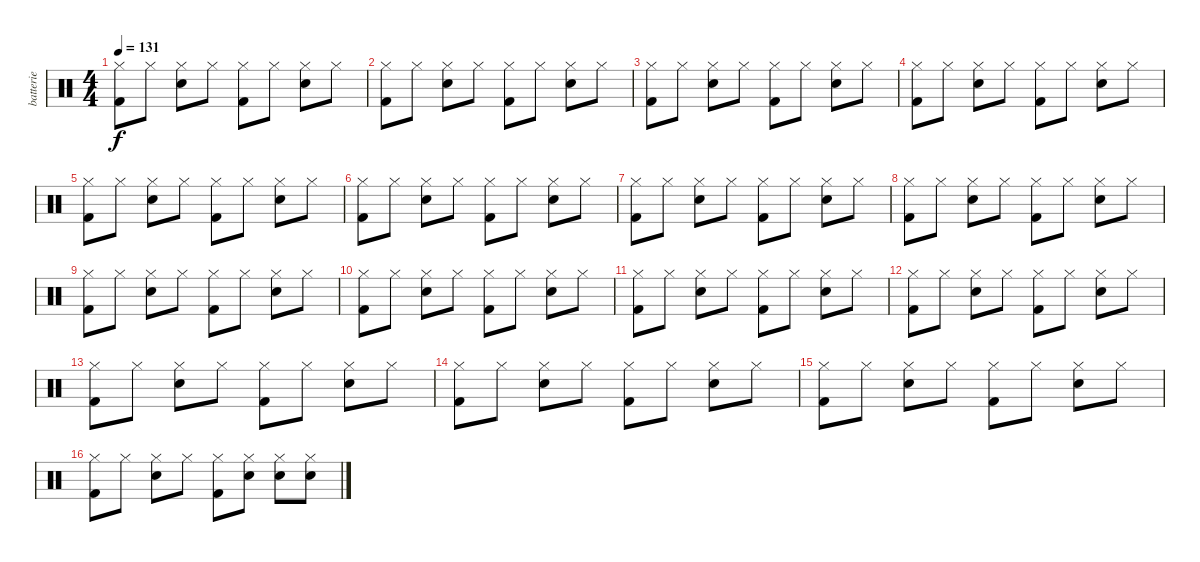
\track ("batterie" "batterie") {instrument percussion}
\staff {score}
\articulation defaults
\ts (4 4)
\tempo 131
\clef neutral
\ks c
("Hi-Hat (closed)" "Kick (hit) 2").8{dy f} "Hi-Hat (closed)".8 ("Hi-Hat (closed)" "Electric Snare (hit)").8 "Hi-Hat (closed)".8 ("Hi-Hat (closed)" "Kick (hit) 2").8 "Hi-Hat (closed)".8 ("Hi-Hat (closed)" "Electric Snare (hit)").8 "Hi-Hat (closed)".8 |
("Hi-Hat (closed)" "Kick (hit) 2").8 "Hi-Hat (closed)".8 ("Hi-Hat (closed)" "Electric Snare (hit)").8 "Hi-Hat (closed)".8 ("Hi-Hat (closed)" "Kick (hit) 2").8 "Hi-Hat (closed)".8 ("Hi-Hat (closed)" "Electric Snare (hit)").8 "Hi-Hat (closed)".8 |
("Hi-Hat (closed)" "Kick (hit) 2").8 "Hi-Hat (closed)".8 ("Hi-Hat (closed)" "Electric Snare (hit)").8 "Hi-Hat (closed)".8 ("Hi-Hat (closed)" "Kick (hit) 2").8 "Hi-Hat (closed)".8 ("Hi-Hat (closed)" "Electric Snare (hit)").8 "Hi-Hat (closed)".8 |
("Hi-Hat (closed)" "Kick (hit) 2").8 "Hi-Hat (closed)".8 ("Hi-Hat (closed)" "Electric Snare (hit)").8 "Hi-Hat (closed)".8 ("Hi-Hat (closed)" "Kick (hit) 2").8 "Hi-Hat (closed)".8 ("Hi-Hat (closed)" "Electric Snare (hit)").8 "Hi-Hat (closed)".8 |
("Hi-Hat (closed)" "Kick (hit) 2").8 "Hi-Hat (closed)".8 ("Hi-Hat (closed)" "Electric Snare (hit)").8 "Hi-Hat (closed)".8 ("Hi-Hat (closed)" "Kick (hit) 2").8 "Hi-Hat (closed)".8 ("Hi-Hat (closed)" "Electric Snare (hit)").8 "Hi-Hat (closed)".8 |
("Hi-Hat (closed)" "Kick (hit) 2").8 "Hi-Hat (closed)".8 ("Hi-Hat (closed)" "Electric Snare (hit)").8 "Hi-Hat (closed)".8 ("Hi-Hat (closed)" "Kick (hit) 2").8 "Hi-Hat (closed)".8 ("Hi-Hat (closed)" "Electric Snare (hit)").8 "Hi-Hat (closed)".8 |
("Hi-Hat (closed)" "Kick (hit) 2").8 "Hi-Hat (closed)".8 ("Hi-Hat (closed)" "Electric Snare (hit)").8 "Hi-Hat (closed)".8 ("Hi-Hat (closed)" "Kick (hit) 2").8 "Hi-Hat (closed)".8 ("Hi-Hat (closed)" "Electric Snare (hit)").8 "Hi-Hat (closed)".8 |
("Hi-Hat (closed)" "Kick (hit) 2").8 "Hi-Hat (closed)".8 ("Hi-Hat (closed)" "Electric Snare (hit)").8 "Hi-Hat (closed)".8 ("Hi-Hat (closed)" "Kick (hit) 2").8 "Hi-Hat (closed)".8 ("Hi-Hat (closed)" "Electric Snare (hit)").8 "Hi-Hat (closed)".8 |
("Hi-Hat (closed)" "Kick (hit) 2").8 "Hi-Hat (closed)".8 ("Hi-Hat (closed)" "Electric Snare (hit)").8 "Hi-Hat (closed)".8 ("Hi-Hat (closed)" "Kick (hit) 2").8 "Hi-Hat (closed)".8 ("Hi-Hat (closed)" "Electric Snare (hit)").8 "Hi-Hat (closed)".8 |
("Hi-Hat (closed)" "Kick (hit) 2").8 "Hi-Hat (closed)".8 ("Hi-Hat (closed)" "Electric Snare (hit)").8 "Hi-Hat (closed)".8 ("Hi-Hat (closed)" "Kick (hit) 2").8 "Hi-Hat (closed)".8 ("Hi-Hat (closed)" "Electric Snare (hit)").8 "Hi-Hat (closed)".8 |
("Hi-Hat (closed)" "Kick (hit) 2").8 "Hi-Hat (closed)".8 ("Hi-Hat (closed)" "Electric Snare (hit)").8 "Hi-Hat (closed)".8 ("Hi-Hat (closed)" "Kick (hit) 2").8 "Hi-Hat (closed)".8 ("Hi-Hat (closed)" "Electric Snare (hit)").8 "Hi-Hat (closed)".8 |
("Hi-Hat (closed)" "Kick (hit) 2").8 "Hi-Hat (closed)".8 ("Hi-Hat (closed)" "Electric Snare (hit)").8 "Hi-Hat (closed)".8 ("Hi-Hat (closed)" "Kick (hit) 2").8 "Hi-Hat (closed)".8 ("Hi-Hat (closed)" "Electric Snare (hit)").8 "Hi-Hat (closed)".8 |
("Hi-Hat (closed)" "Kick (hit) 2").8 "Hi-Hat (closed)".8 ("Hi-Hat (closed)" "Electric Snare (hit)").8 "Hi-Hat (closed)".8 ("Hi-Hat (closed)" "Kick (hit) 2").8 "Hi-Hat (closed)".8 ("Hi-Hat (closed)" "Electric Snare (hit)").8 "Hi-Hat (closed)".8 |
("Hi-Hat (closed)" "Kick (hit) 2").8 "Hi-Hat (closed)".8 ("Hi-Hat (closed)" "Electric Snare (hit)").8 "Hi-Hat (closed)".8 ("Hi-Hat (closed)" "Kick (hit) 2").8 "Hi-Hat (closed)".8 ("Hi-Hat (closed)" "Electric Snare (hit)").8 "Hi-Hat (closed)".8 |
("Hi-Hat (closed)" "Kick (hit) 2").8 "Hi-Hat (closed)".8 ("Hi-Hat (closed)" "Electric Snare (hit)").8 "Hi-Hat (closed)".8 ("Hi-Hat (closed)" "Kick (hit) 2").8 "Hi-Hat (closed)".8 ("Hi-Hat (closed)" "Electric Snare (hit)").8 "Hi-Hat (closed)".8 |
("Hi-Hat (closed)" "Kick (hit) 2").8 "Hi-Hat (closed)".8 ("Hi-Hat (closed)" "Electric Snare (hit)").8 "Hi-Hat (closed)".8 ("Hi-Hat (closed)" "Kick (hit) 2").8 ("Hi-Hat (closed)" "Electric Snare (hit)").8 ("Hi-Hat (closed)" "Electric Snare (hit)").8 ("Hi-Hat (closed)" "Electric Snare (hit)").8
